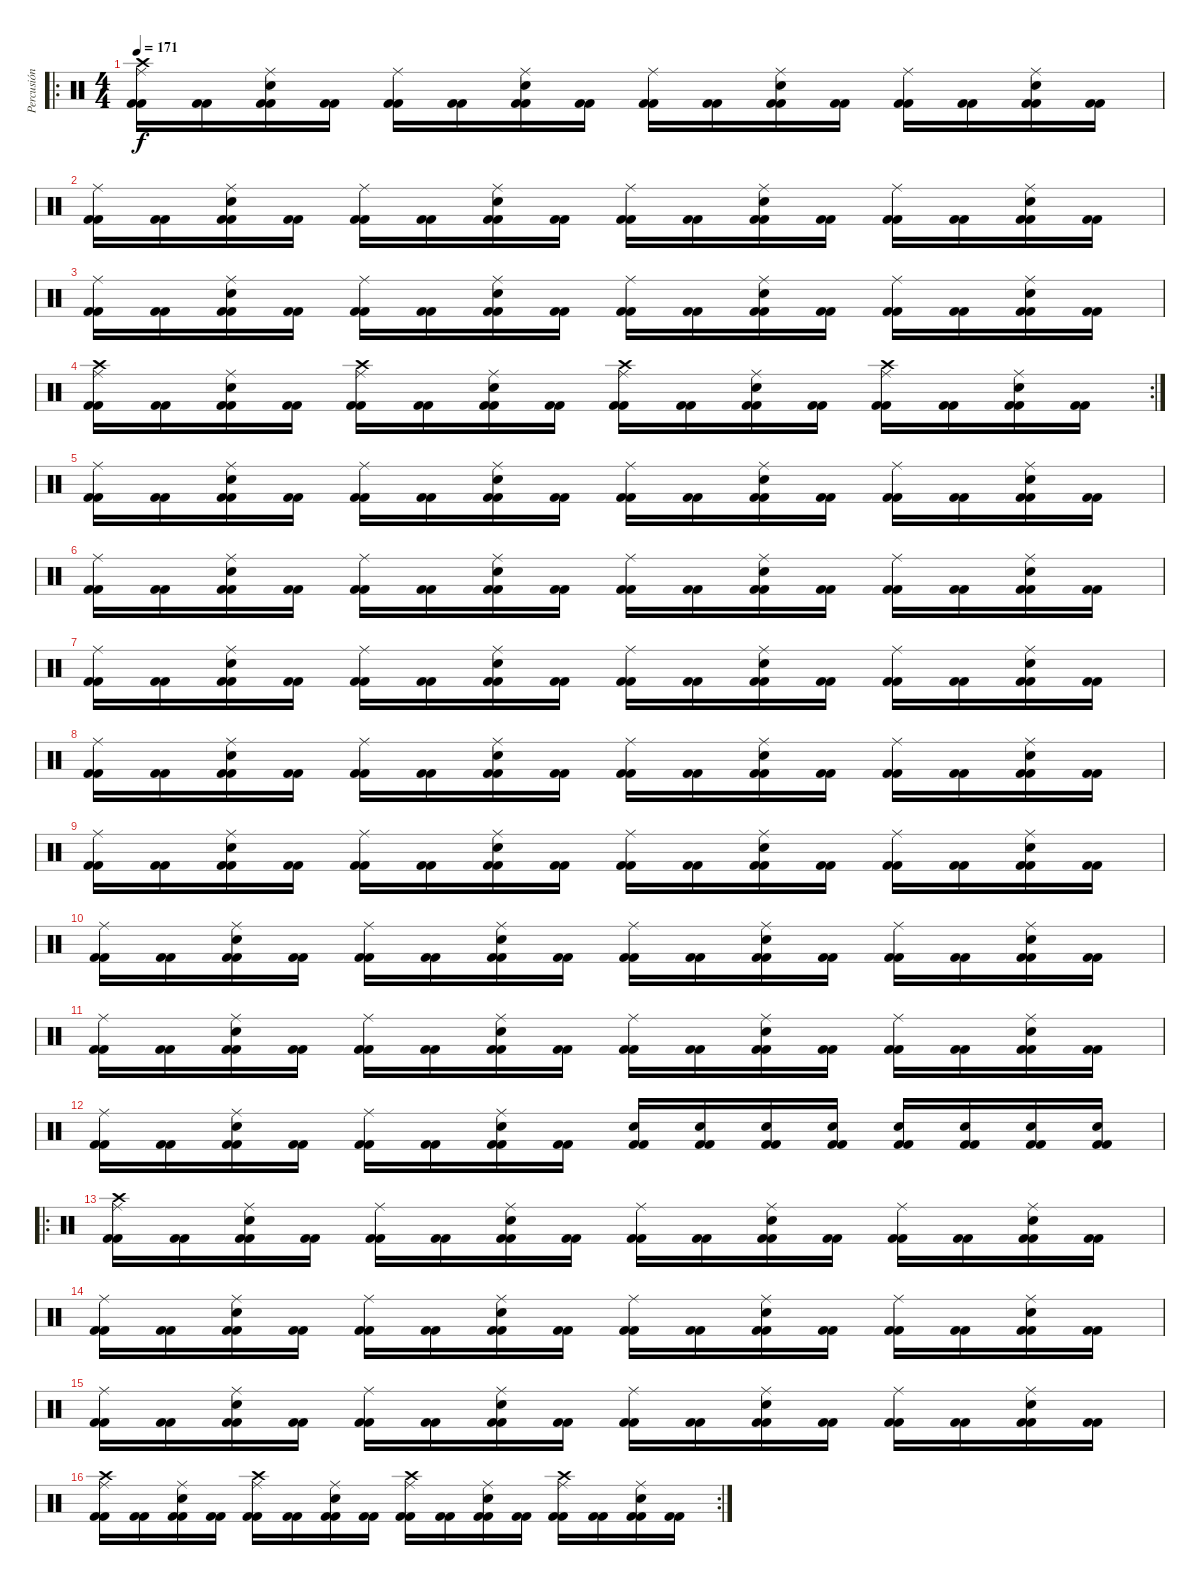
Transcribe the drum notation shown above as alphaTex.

\track ("Percusión" "Percusión") {instrument percussion}
\staff {score}
\articulation defaults
\ro
\ts (4 4)
\tempo 171
\clef neutral
\ks c
("Kick (hit) 2" "Kick (hit) 2" "Ride (middle)" "Crash high (hit)").16{dy f} ("Kick (hit) 2" "Kick (hit) 2").16 ("Kick (hit) 2" "Kick (hit) 2" "Electric Snare (hit)" "Ride (middle)").16 ("Kick (hit) 2" "Kick (hit) 2").16 ("Kick (hit) 2" "Kick (hit) 2" "Ride (middle)").16 ("Kick (hit) 2" "Kick (hit) 2").16 ("Kick (hit) 2" "Kick (hit) 2" "Electric Snare (hit)" "Ride (middle)").16 ("Kick (hit) 2" "Kick (hit) 2").16 ("Kick (hit) 2" "Kick (hit) 2" "Ride (middle)").16 ("Kick (hit) 2" "Kick (hit) 2").16 ("Kick (hit) 2" "Kick (hit) 2" "Electric Snare (hit)" "Ride (middle)").16 ("Kick (hit) 2" "Kick (hit) 2").16 ("Kick (hit) 2" "Kick (hit) 2" "Ride (middle)").16 ("Kick (hit) 2" "Kick (hit) 2").16 ("Kick (hit) 2" "Kick (hit) 2" "Electric Snare (hit)" "Ride (middle)").16 ("Kick (hit) 2" "Kick (hit) 2").16 |
("Kick (hit) 2" "Kick (hit) 2" "Ride (middle)").16 ("Kick (hit) 2" "Kick (hit) 2").16 ("Kick (hit) 2" "Kick (hit) 2" "Electric Snare (hit)" "Ride (middle)").16 ("Kick (hit) 2" "Kick (hit) 2").16 ("Kick (hit) 2" "Kick (hit) 2" "Ride (middle)").16 ("Kick (hit) 2" "Kick (hit) 2").16 ("Kick (hit) 2" "Kick (hit) 2" "Electric Snare (hit)" "Ride (middle)").16 ("Kick (hit) 2" "Kick (hit) 2").16 ("Kick (hit) 2" "Kick (hit) 2" "Ride (middle)").16 ("Kick (hit) 2" "Kick (hit) 2").16 ("Kick (hit) 2" "Kick (hit) 2" "Electric Snare (hit)" "Ride (middle)").16 ("Kick (hit) 2" "Kick (hit) 2").16 ("Kick (hit) 2" "Kick (hit) 2" "Ride (middle)").16 ("Kick (hit) 2" "Kick (hit) 2").16 ("Kick (hit) 2" "Kick (hit) 2" "Electric Snare (hit)" "Ride (middle)").16 ("Kick (hit) 2" "Kick (hit) 2").16 |
("Kick (hit) 2" "Kick (hit) 2" "Ride (middle)").16 ("Kick (hit) 2" "Kick (hit) 2").16 ("Kick (hit) 2" "Kick (hit) 2" "Electric Snare (hit)" "Ride (middle)").16 ("Kick (hit) 2" "Kick (hit) 2").16 ("Kick (hit) 2" "Kick (hit) 2" "Ride (middle)").16 ("Kick (hit) 2" "Kick (hit) 2").16 ("Kick (hit) 2" "Kick (hit) 2" "Electric Snare (hit)" "Ride (middle)").16 ("Kick (hit) 2" "Kick (hit) 2").16 ("Kick (hit) 2" "Kick (hit) 2" "Ride (middle)").16 ("Kick (hit) 2" "Kick (hit) 2").16 ("Kick (hit) 2" "Kick (hit) 2" "Electric Snare (hit)" "Ride (middle)").16 ("Kick (hit) 2" "Kick (hit) 2").16 ("Kick (hit) 2" "Kick (hit) 2" "Ride (middle)").16 ("Kick (hit) 2" "Kick (hit) 2").16 ("Kick (hit) 2" "Kick (hit) 2" "Electric Snare (hit)" "Ride (middle)").16 ("Kick (hit) 2" "Kick (hit) 2").16 |
\rc 2
("Kick (hit) 2" "Kick (hit) 2" "Ride (middle)" "Crash high (hit)").16 ("Kick (hit) 2" "Kick (hit) 2").16 ("Kick (hit) 2" "Kick (hit) 2" "Electric Snare (hit)" "Ride (middle)").16 ("Kick (hit) 2" "Kick (hit) 2").16 ("Kick (hit) 2" "Kick (hit) 2" "Ride (middle)" "Crash high (hit)").16 ("Kick (hit) 2" "Kick (hit) 2").16 ("Kick (hit) 2" "Kick (hit) 2" "Electric Snare (hit)" "Ride (middle)").16 ("Kick (hit) 2" "Kick (hit) 2").16 ("Kick (hit) 2" "Kick (hit) 2" "Ride (middle)" "Crash high (hit)").16 ("Kick (hit) 2" "Kick (hit) 2").16 ("Kick (hit) 2" "Kick (hit) 2" "Electric Snare (hit)" "Ride (middle)").16 ("Kick (hit) 2" "Kick (hit) 2").16 ("Kick (hit) 2" "Kick (hit) 2" "Ride (middle)" "Crash high (hit)").16 ("Kick (hit) 2" "Kick (hit) 2").16 ("Kick (hit) 2" "Kick (hit) 2" "Electric Snare (hit)" "Ride (middle)").16 ("Kick (hit) 2" "Kick (hit) 2").16 |
("Kick (hit) 2" "Kick (hit) 2" "Ride (middle)").16 ("Kick (hit) 2" "Kick (hit) 2").16 ("Kick (hit) 2" "Kick (hit) 2" "Electric Snare (hit)" "Ride (middle)").16 ("Kick (hit) 2" "Kick (hit) 2").16 ("Kick (hit) 2" "Kick (hit) 2" "Ride (middle)").16 ("Kick (hit) 2" "Kick (hit) 2").16 ("Kick (hit) 2" "Kick (hit) 2" "Electric Snare (hit)" "Ride (middle)").16 ("Kick (hit) 2" "Kick (hit) 2").16 ("Kick (hit) 2" "Kick (hit) 2" "Ride (middle)").16 ("Kick (hit) 2" "Kick (hit) 2").16 ("Kick (hit) 2" "Kick (hit) 2" "Electric Snare (hit)" "Ride (middle)").16 ("Kick (hit) 2" "Kick (hit) 2").16 ("Kick (hit) 2" "Kick (hit) 2" "Ride (middle)").16 ("Kick (hit) 2" "Kick (hit) 2").16 ("Kick (hit) 2" "Kick (hit) 2" "Electric Snare (hit)" "Ride (middle)").16 ("Kick (hit) 2" "Kick (hit) 2").16 |
("Kick (hit) 2" "Kick (hit) 2" "Ride (middle)").16 ("Kick (hit) 2" "Kick (hit) 2").16 ("Kick (hit) 2" "Kick (hit) 2" "Electric Snare (hit)" "Ride (middle)").16 ("Kick (hit) 2" "Kick (hit) 2").16 ("Kick (hit) 2" "Kick (hit) 2" "Ride (middle)").16 ("Kick (hit) 2" "Kick (hit) 2").16 ("Kick (hit) 2" "Kick (hit) 2" "Electric Snare (hit)" "Ride (middle)").16 ("Kick (hit) 2" "Kick (hit) 2").16 ("Kick (hit) 2" "Kick (hit) 2" "Ride (middle)").16 ("Kick (hit) 2" "Kick (hit) 2").16 ("Kick (hit) 2" "Kick (hit) 2" "Electric Snare (hit)" "Ride (middle)").16 ("Kick (hit) 2" "Kick (hit) 2").16 ("Kick (hit) 2" "Kick (hit) 2" "Ride (middle)").16 ("Kick (hit) 2" "Kick (hit) 2").16 ("Kick (hit) 2" "Kick (hit) 2" "Electric Snare (hit)" "Ride (middle)").16 ("Kick (hit) 2" "Kick (hit) 2").16 |
("Kick (hit) 2" "Kick (hit) 2" "Ride (middle)").16 ("Kick (hit) 2" "Kick (hit) 2").16 ("Kick (hit) 2" "Kick (hit) 2" "Electric Snare (hit)" "Ride (middle)").16 ("Kick (hit) 2" "Kick (hit) 2").16 ("Kick (hit) 2" "Kick (hit) 2" "Ride (middle)").16 ("Kick (hit) 2" "Kick (hit) 2").16 ("Kick (hit) 2" "Kick (hit) 2" "Electric Snare (hit)" "Ride (middle)").16 ("Kick (hit) 2" "Kick (hit) 2").16 ("Kick (hit) 2" "Kick (hit) 2" "Ride (middle)").16 ("Kick (hit) 2" "Kick (hit) 2").16 ("Kick (hit) 2" "Kick (hit) 2" "Electric Snare (hit)" "Ride (middle)").16 ("Kick (hit) 2" "Kick (hit) 2").16 ("Kick (hit) 2" "Kick (hit) 2" "Ride (middle)").16 ("Kick (hit) 2" "Kick (hit) 2").16 ("Kick (hit) 2" "Kick (hit) 2" "Electric Snare (hit)" "Ride (middle)").16 ("Kick (hit) 2" "Kick (hit) 2").16 |
("Kick (hit) 2" "Kick (hit) 2" "Ride (middle)").16 ("Kick (hit) 2" "Kick (hit) 2").16 ("Kick (hit) 2" "Kick (hit) 2" "Electric Snare (hit)" "Ride (middle)").16 ("Kick (hit) 2" "Kick (hit) 2").16 ("Kick (hit) 2" "Kick (hit) 2" "Ride (middle)").16 ("Kick (hit) 2" "Kick (hit) 2").16 ("Kick (hit) 2" "Kick (hit) 2" "Electric Snare (hit)" "Ride (middle)").16 ("Kick (hit) 2" "Kick (hit) 2").16 ("Kick (hit) 2" "Kick (hit) 2" "Ride (middle)").16 ("Kick (hit) 2" "Kick (hit) 2").16 ("Kick (hit) 2" "Kick (hit) 2" "Electric Snare (hit)" "Ride (middle)").16 ("Kick (hit) 2" "Kick (hit) 2").16 ("Kick (hit) 2" "Kick (hit) 2" "Ride (middle)").16 ("Kick (hit) 2" "Kick (hit) 2").16 ("Kick (hit) 2" "Kick (hit) 2" "Electric Snare (hit)" "Ride (middle)").16 ("Kick (hit) 2" "Kick (hit) 2").16 |
("Kick (hit) 2" "Kick (hit) 2" "Ride (middle)").16 ("Kick (hit) 2" "Kick (hit) 2").16 ("Kick (hit) 2" "Kick (hit) 2" "Electric Snare (hit)" "Ride (middle)").16 ("Kick (hit) 2" "Kick (hit) 2").16 ("Kick (hit) 2" "Kick (hit) 2" "Ride (middle)").16 ("Kick (hit) 2" "Kick (hit) 2").16 ("Kick (hit) 2" "Kick (hit) 2" "Electric Snare (hit)" "Ride (middle)").16 ("Kick (hit) 2" "Kick (hit) 2").16 ("Kick (hit) 2" "Kick (hit) 2" "Ride (middle)").16 ("Kick (hit) 2" "Kick (hit) 2").16 ("Kick (hit) 2" "Kick (hit) 2" "Electric Snare (hit)" "Ride (middle)").16 ("Kick (hit) 2" "Kick (hit) 2").16 ("Kick (hit) 2" "Kick (hit) 2" "Ride (middle)").16 ("Kick (hit) 2" "Kick (hit) 2").16 ("Kick (hit) 2" "Kick (hit) 2" "Electric Snare (hit)" "Ride (middle)").16 ("Kick (hit) 2" "Kick (hit) 2").16 |
("Kick (hit) 2" "Kick (hit) 2" "Ride (middle)").16 ("Kick (hit) 2" "Kick (hit) 2").16 ("Kick (hit) 2" "Kick (hit) 2" "Electric Snare (hit)" "Ride (middle)").16 ("Kick (hit) 2" "Kick (hit) 2").16 ("Kick (hit) 2" "Kick (hit) 2" "Ride (middle)").16 ("Kick (hit) 2" "Kick (hit) 2").16 ("Kick (hit) 2" "Kick (hit) 2" "Electric Snare (hit)" "Ride (middle)").16 ("Kick (hit) 2" "Kick (hit) 2").16 ("Kick (hit) 2" "Kick (hit) 2" "Ride (middle)").16 ("Kick (hit) 2" "Kick (hit) 2").16 ("Kick (hit) 2" "Kick (hit) 2" "Electric Snare (hit)" "Ride (middle)").16 ("Kick (hit) 2" "Kick (hit) 2").16 ("Kick (hit) 2" "Kick (hit) 2" "Ride (middle)").16 ("Kick (hit) 2" "Kick (hit) 2").16 ("Kick (hit) 2" "Kick (hit) 2" "Electric Snare (hit)" "Ride (middle)").16 ("Kick (hit) 2" "Kick (hit) 2").16 |
("Kick (hit) 2" "Kick (hit) 2" "Ride (middle)").16 ("Kick (hit) 2" "Kick (hit) 2").16 ("Kick (hit) 2" "Kick (hit) 2" "Electric Snare (hit)" "Ride (middle)").16 ("Kick (hit) 2" "Kick (hit) 2").16 ("Kick (hit) 2" "Kick (hit) 2" "Ride (middle)").16 ("Kick (hit) 2" "Kick (hit) 2").16 ("Kick (hit) 2" "Kick (hit) 2" "Electric Snare (hit)" "Ride (middle)").16 ("Kick (hit) 2" "Kick (hit) 2").16 ("Kick (hit) 2" "Kick (hit) 2" "Ride (middle)").16 ("Kick (hit) 2" "Kick (hit) 2").16 ("Kick (hit) 2" "Kick (hit) 2" "Electric Snare (hit)" "Ride (middle)").16 ("Kick (hit) 2" "Kick (hit) 2").16 ("Kick (hit) 2" "Kick (hit) 2" "Ride (middle)").16 ("Kick (hit) 2" "Kick (hit) 2").16 ("Kick (hit) 2" "Kick (hit) 2" "Electric Snare (hit)" "Ride (middle)").16 ("Kick (hit) 2" "Kick (hit) 2").16 |
("Kick (hit) 2" "Kick (hit) 2" "Ride (middle)").16 ("Kick (hit) 2" "Kick (hit) 2").16 ("Kick (hit) 2" "Kick (hit) 2" "Electric Snare (hit)" "Ride (middle)").16 ("Kick (hit) 2" "Kick (hit) 2").16 ("Kick (hit) 2" "Kick (hit) 2" "Ride (middle)").16 ("Kick (hit) 2" "Kick (hit) 2").16 ("Kick (hit) 2" "Kick (hit) 2" "Electric Snare (hit)" "Ride (middle)").16 ("Kick (hit) 2" "Kick (hit) 2").16 ("Kick (hit) 2" "Kick (hit) 2" "Electric Snare (hit)").16 ("Kick (hit) 2" "Kick (hit) 2" "Electric Snare (hit)").16 ("Kick (hit) 2" "Kick (hit) 2" "Electric Snare (hit)").16 ("Kick (hit) 2" "Kick (hit) 2" "Electric Snare (hit)").16 ("Kick (hit) 2" "Kick (hit) 2" "Electric Snare (hit)").16 ("Kick (hit) 2" "Kick (hit) 2" "Electric Snare (hit)").16 ("Kick (hit) 2" "Kick (hit) 2" "Electric Snare (hit)").16 ("Kick (hit) 2" "Kick (hit) 2" "Electric Snare (hit)").16 |
\ro
("Kick (hit) 2" "Kick (hit) 2" "Ride (middle)" "Crash high (hit)").16 ("Kick (hit) 2" "Kick (hit) 2").16 ("Kick (hit) 2" "Kick (hit) 2" "Electric Snare (hit)" "Ride (middle)").16 ("Kick (hit) 2" "Kick (hit) 2").16 ("Kick (hit) 2" "Kick (hit) 2" "Ride (middle)").16 ("Kick (hit) 2" "Kick (hit) 2").16 ("Kick (hit) 2" "Kick (hit) 2" "Electric Snare (hit)" "Ride (middle)").16 ("Kick (hit) 2" "Kick (hit) 2").16 ("Kick (hit) 2" "Kick (hit) 2" "Ride (middle)").16 ("Kick (hit) 2" "Kick (hit) 2").16 ("Kick (hit) 2" "Kick (hit) 2" "Electric Snare (hit)" "Ride (middle)").16 ("Kick (hit) 2" "Kick (hit) 2").16 ("Kick (hit) 2" "Kick (hit) 2" "Ride (middle)").16 ("Kick (hit) 2" "Kick (hit) 2").16 ("Kick (hit) 2" "Kick (hit) 2" "Electric Snare (hit)" "Ride (middle)").16 ("Kick (hit) 2" "Kick (hit) 2").16 |
("Kick (hit) 2" "Kick (hit) 2" "Ride (middle)").16 ("Kick (hit) 2" "Kick (hit) 2").16 ("Kick (hit) 2" "Kick (hit) 2" "Electric Snare (hit)" "Ride (middle)").16 ("Kick (hit) 2" "Kick (hit) 2").16 ("Kick (hit) 2" "Kick (hit) 2" "Ride (middle)").16 ("Kick (hit) 2" "Kick (hit) 2").16 ("Kick (hit) 2" "Kick (hit) 2" "Electric Snare (hit)" "Ride (middle)").16 ("Kick (hit) 2" "Kick (hit) 2").16 ("Kick (hit) 2" "Kick (hit) 2" "Ride (middle)").16 ("Kick (hit) 2" "Kick (hit) 2").16 ("Kick (hit) 2" "Kick (hit) 2" "Electric Snare (hit)" "Ride (middle)").16 ("Kick (hit) 2" "Kick (hit) 2").16 ("Kick (hit) 2" "Kick (hit) 2" "Ride (middle)").16 ("Kick (hit) 2" "Kick (hit) 2").16 ("Kick (hit) 2" "Kick (hit) 2" "Electric Snare (hit)" "Ride (middle)").16 ("Kick (hit) 2" "Kick (hit) 2").16 |
("Kick (hit) 2" "Kick (hit) 2" "Ride (middle)").16 ("Kick (hit) 2" "Kick (hit) 2").16 ("Kick (hit) 2" "Kick (hit) 2" "Electric Snare (hit)" "Ride (middle)").16 ("Kick (hit) 2" "Kick (hit) 2").16 ("Kick (hit) 2" "Kick (hit) 2" "Ride (middle)").16 ("Kick (hit) 2" "Kick (hit) 2").16 ("Kick (hit) 2" "Kick (hit) 2" "Electric Snare (hit)" "Ride (middle)").16 ("Kick (hit) 2" "Kick (hit) 2").16 ("Kick (hit) 2" "Kick (hit) 2" "Ride (middle)").16 ("Kick (hit) 2" "Kick (hit) 2").16 ("Kick (hit) 2" "Kick (hit) 2" "Electric Snare (hit)" "Ride (middle)").16 ("Kick (hit) 2" "Kick (hit) 2").16 ("Kick (hit) 2" "Kick (hit) 2" "Ride (middle)").16 ("Kick (hit) 2" "Kick (hit) 2").16 ("Kick (hit) 2" "Kick (hit) 2" "Electric Snare (hit)" "Ride (middle)").16 ("Kick (hit) 2" "Kick (hit) 2").16 |
\rc 2
("Kick (hit) 2" "Kick (hit) 2" "Ride (middle)" "Crash high (hit)").16 ("Kick (hit) 2" "Kick (hit) 2").16 ("Kick (hit) 2" "Kick (hit) 2" "Electric Snare (hit)" "Ride (middle)").16 ("Kick (hit) 2" "Kick (hit) 2").16 ("Kick (hit) 2" "Kick (hit) 2" "Ride (middle)" "Crash high (hit)").16 ("Kick (hit) 2" "Kick (hit) 2").16 ("Kick (hit) 2" "Kick (hit) 2" "Electric Snare (hit)" "Ride (middle)").16 ("Kick (hit) 2" "Kick (hit) 2").16 ("Kick (hit) 2" "Kick (hit) 2" "Ride (middle)" "Crash high (hit)").16 ("Kick (hit) 2" "Kick (hit) 2").16 ("Kick (hit) 2" "Kick (hit) 2" "Electric Snare (hit)" "Ride (middle)").16 ("Kick (hit) 2" "Kick (hit) 2").16 ("Kick (hit) 2" "Kick (hit) 2" "Ride (middle)" "Crash high (hit)").16 ("Kick (hit) 2" "Kick (hit) 2").16 ("Kick (hit) 2" "Kick (hit) 2" "Electric Snare (hit)" "Ride (middle)").16 ("Kick (hit) 2" "Kick (hit) 2").16
